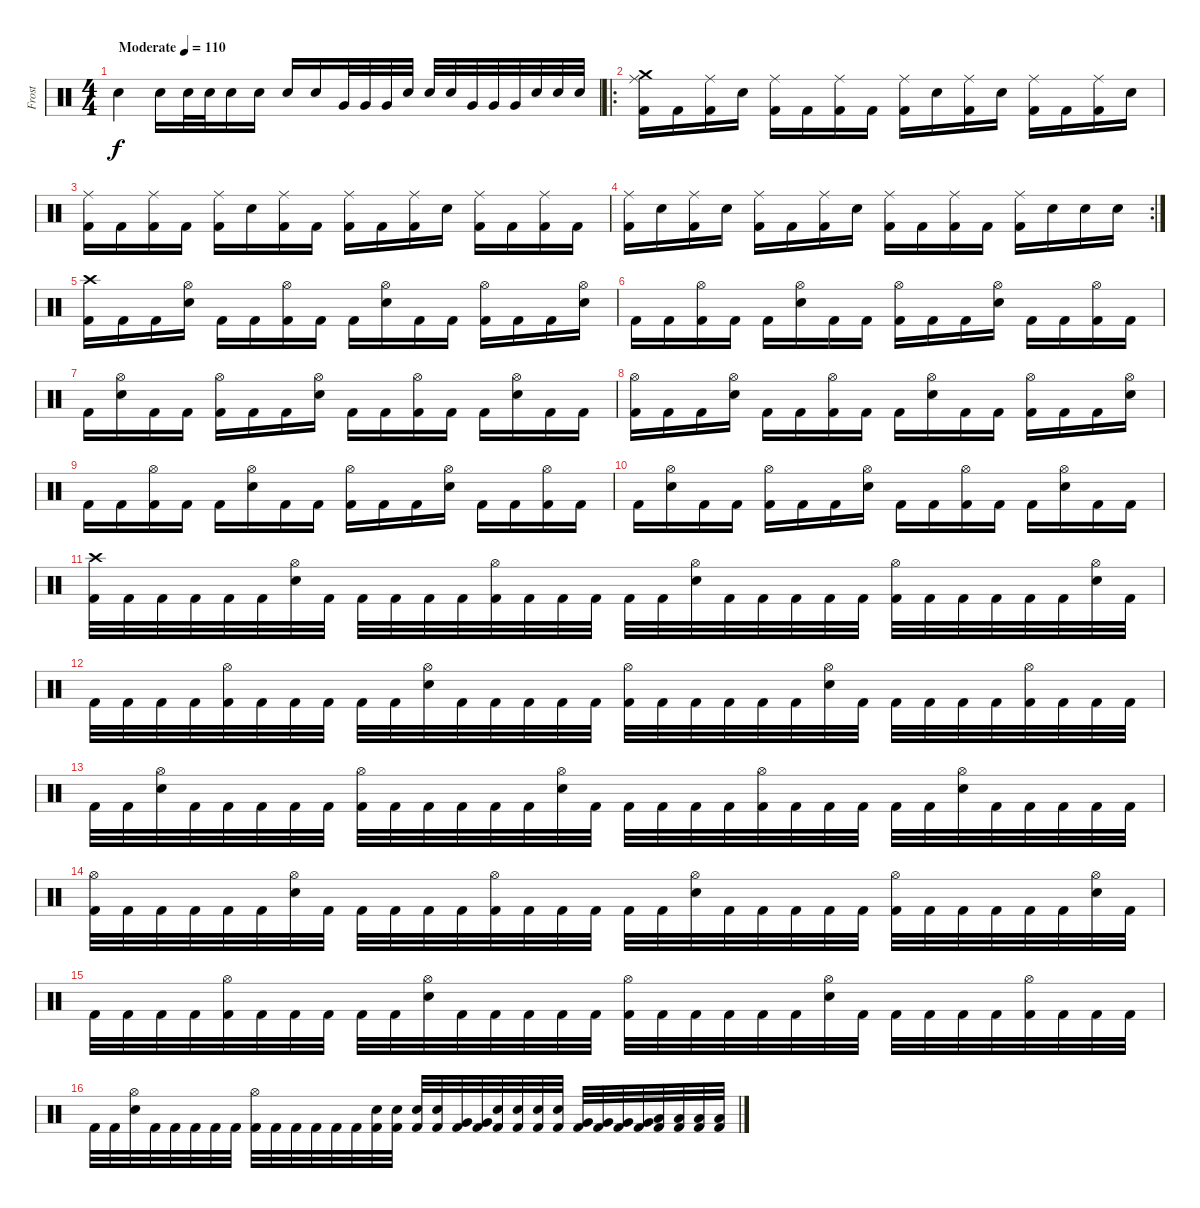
\track ("Frost" "Frost") {instrument percussion}
\staff {score}
\articulation defaults
\ts (4 4)
\tempo (110 "Moderate")
\clef neutral
\ks c "Snare (hit)".4{dy f} "Snare (hit) 2".16 "Snare (hit) 2".32 "Snare (hit) 2".32 "Snare (hit) 2".16 "Snare (hit) 2".16 "Snare (hit) 2".16 "Snare (hit) 2".16 "Very Low Tom (hit)".32 "Very Low Tom (hit)".32 "Very Low Tom (hit)".32 "Snare (hit) 2".32 "Snare (hit) 2".32 "Snare (hit) 2".32 "Very Low Tom (hit)".32 "Very Low Tom (hit)".32 "Very Low Tom (hit)".32 "Snare (hit) 2".32 "Snare (hit) 2".32 "Snare (hit) 2".32
|
\ro
("Crash medium (hit)" "Ride (middle)" "Kick (hit) 2").16 "Kick (hit) 2".16 ("Ride (middle)" "Kick (hit) 2").16 "Snare (hit) 2".16 ("Ride (middle)" "Kick (hit) 2").16 "Kick (hit) 2".16 ("Ride (middle)" "Kick (hit) 2").16 "Kick (hit) 2".16 ("Ride (middle)" "Kick (hit) 2").16 "Snare (hit) 2".16 ("Ride (middle)" "Kick (hit) 2").16 "Snare (hit) 2".16 ("Ride (middle)" "Kick (hit) 2").16 "Kick (hit) 2".16 ("Ride (middle)" "Kick (hit) 2").16 "Snare (hit) 2".16 |
("Ride (middle)" "Kick (hit) 2").16 "Kick (hit) 2".16 ("Ride (middle)" "Kick (hit) 2").16 "Kick (hit) 2".16 ("Ride (middle)" "Kick (hit) 2").16 "Snare (hit) 2".16 ("Ride (middle)" "Kick (hit) 2").16 "Kick (hit) 2".16 ("Ride (middle)" "Kick (hit) 2").16 "Kick (hit) 2".16 ("Ride (middle)" "Kick (hit) 2").16 "Snare (hit) 2".16 ("Ride (middle)" "Kick (hit) 2").16 "Kick (hit) 2".16 ("Ride (middle)" "Kick (hit) 2").16 "Kick (hit) 2".16 |
\rc 2
("Ride (middle)" "Kick (hit) 2").16 "Snare (hit) 2".16 ("Ride (middle)" "Kick (hit) 2").16 "Snare (hit) 2".16 ("Ride (middle)" "Kick (hit) 2").16 "Kick (hit) 2".16 ("Ride (middle)" "Kick (hit) 2").16 "Snare (hit) 2".16 ("Ride (middle)" "Kick (hit) 2").16 "Kick (hit) 2".16 ("Ride (middle)" "Kick (hit) 2").16 "Kick (hit) 2".16 ("Ride (middle)" "Kick (hit) 2").16 "Snare (hit) 2".16 "Snare (hit) 2".16 "Snare (hit) 2".16 |
("Crash high (hit)" "Kick (hit) 2").16 "Kick (hit) 2".16 "Kick (hit) 2".16 ("Hi-Hat (open)" "Snare (hit) 2").16 "Kick (hit) 2".16 "Kick (hit) 2".16 ("Hi-Hat (open)" "Kick (hit) 2").16 "Kick (hit) 2".16 "Kick (hit) 2".16 ("Hi-Hat (open)" "Snare (hit) 2").16 "Kick (hit) 2".16 "Kick (hit) 2".16 ("Hi-Hat (open)" "Kick (hit) 2").16 "Kick (hit) 2".16 "Kick (hit) 2".16 ("Hi-Hat (open)" "Snare (hit) 2").16 |
"Kick (hit) 2".16 "Kick (hit) 2".16 ("Hi-Hat (open)" "Kick (hit) 2").16 "Kick (hit) 2".16 "Kick (hit) 2".16 ("Hi-Hat (open)" "Snare (hit) 2").16 "Kick (hit) 2".16 "Kick (hit) 2".16 ("Hi-Hat (open)" "Kick (hit) 2").16 "Kick (hit) 2".16 "Kick (hit) 2".16 ("Hi-Hat (open)" "Snare (hit) 2").16 "Kick (hit) 2".16 "Kick (hit) 2".16 ("Hi-Hat (open)" "Kick (hit) 2").16 "Kick (hit) 2".16 |
"Kick (hit) 2".16 ("Hi-Hat (open)" "Snare (hit) 2").16 "Kick (hit) 2".16 "Kick (hit) 2".16 ("Hi-Hat (open)" "Kick (hit) 2").16 "Kick (hit) 2".16 "Kick (hit) 2".16 ("Hi-Hat (open)" "Snare (hit) 2").16 "Kick (hit) 2".16 "Kick (hit) 2".16 ("Hi-Hat (open)" "Kick (hit) 2").16 "Kick (hit) 2".16 "Kick (hit) 2".16 ("Hi-Hat (open)" "Snare (hit) 2").16 "Kick (hit) 2".16 "Kick (hit) 2".16 |
("Hi-Hat (open)" "Kick (hit) 2").16 "Kick (hit) 2".16 "Kick (hit) 2".16 ("Hi-Hat (open)" "Snare (hit) 2").16 "Kick (hit) 2".16 "Kick (hit) 2".16 ("Hi-Hat (open)" "Kick (hit) 2").16 "Kick (hit) 2".16 "Kick (hit) 2".16 ("Hi-Hat (open)" "Snare (hit) 2").16 "Kick (hit) 2".16 "Kick (hit) 2".16 ("Hi-Hat (open)" "Kick (hit) 2").16 "Kick (hit) 2".16 "Kick (hit) 2".16 ("Hi-Hat (open)" "Snare (hit) 2").16 |
"Kick (hit) 2".16 "Kick (hit) 2".16 ("Hi-Hat (open)" "Kick (hit) 2").16 "Kick (hit) 2".16 "Kick (hit) 2".16 ("Hi-Hat (open)" "Snare (hit) 2").16 "Kick (hit) 2".16 "Kick (hit) 2".16 ("Hi-Hat (open)" "Kick (hit) 2").16 "Kick (hit) 2".16 "Kick (hit) 2".16 ("Hi-Hat (open)" "Snare (hit) 2").16 "Kick (hit) 2".16 "Kick (hit) 2".16 ("Hi-Hat (open)" "Kick (hit) 2").16 "Kick (hit) 2".16 |
"Kick (hit) 2".16 ("Hi-Hat (open)" "Snare (hit) 2").16 "Kick (hit) 2".16 "Kick (hit) 2".16 ("Hi-Hat (open)" "Kick (hit) 2").16 "Kick (hit) 2".16 "Kick (hit) 2".16 ("Hi-Hat (open)" "Snare (hit) 2").16 "Kick (hit) 2".16 "Kick (hit) 2".16 ("Hi-Hat (open)" "Kick (hit) 2").16 "Kick (hit) 2".16 "Kick (hit) 2".16 ("Hi-Hat (open)" "Snare (hit) 2").16 "Kick (hit) 2".16 "Kick (hit) 2".16 |
("Crash high (hit)" "Kick (hit) 2").32 "Kick (hit) 2".32 "Kick (hit) 2".32 "Kick (hit) 2".32 "Kick (hit) 2".32 "Kick (hit) 2".32 ("Hi-Hat (open)" "Snare (hit) 2").32 "Kick (hit) 2".32 "Kick (hit) 2".32 "Kick (hit) 2".32 "Kick (hit) 2".32 "Kick (hit) 2".32 ("Hi-Hat (open)" "Kick (hit) 2").32 "Kick (hit) 2".32 "Kick (hit) 2".32 "Kick (hit) 2".32 "Kick (hit) 2".32 "Kick (hit) 2".32 ("Hi-Hat (open)" "Snare (hit) 2").32 "Kick (hit) 2".32 "Kick (hit) 2".32 "Kick (hit) 2".32 "Kick (hit) 2".32 "Kick (hit) 2".32 ("Hi-Hat (open)" "Kick (hit) 2").32 "Kick (hit) 2".32 "Kick (hit) 2".32 "Kick (hit) 2".32 "Kick (hit) 2".32 "Kick (hit) 2".32 ("Hi-Hat (open)" "Snare (hit) 2").32 "Kick (hit) 2".32 |
"Kick (hit) 2".32 "Kick (hit) 2".32 "Kick (hit) 2".32 "Kick (hit) 2".32 ("Hi-Hat (open)" "Kick (hit) 2").32 "Kick (hit) 2".32 "Kick (hit) 2".32 "Kick (hit) 2".32 "Kick (hit) 2".32 "Kick (hit) 2".32 ("Hi-Hat (open)" "Snare (hit) 2").32 "Kick (hit) 2".32 "Kick (hit) 2".32 "Kick (hit) 2".32 "Kick (hit) 2".32 "Kick (hit) 2".32 ("Hi-Hat (open)" "Kick (hit) 2").32 "Kick (hit) 2".32 "Kick (hit) 2".32 "Kick (hit) 2".32 "Kick (hit) 2".32 "Kick (hit) 2".32 ("Hi-Hat (open)" "Snare (hit) 2").32 "Kick (hit) 2".32 "Kick (hit) 2".32 "Kick (hit) 2".32 "Kick (hit) 2".32 "Kick (hit) 2".32 ("Hi-Hat (open)" "Kick (hit) 2").32 "Kick (hit) 2".32 "Kick (hit) 2".32 "Kick (hit) 2".32 |
"Kick (hit) 2".32 "Kick (hit) 2".32 ("Hi-Hat (open)" "Snare (hit) 2").32 "Kick (hit) 2".32 "Kick (hit) 2".32 "Kick (hit) 2".32 "Kick (hit) 2".32 "Kick (hit) 2".32 ("Hi-Hat (open)" "Kick (hit) 2").32 "Kick (hit) 2".32 "Kick (hit) 2".32 "Kick (hit) 2".32 "Kick (hit) 2".32 "Kick (hit) 2".32 ("Hi-Hat (open)" "Snare (hit) 2").32 "Kick (hit) 2".32 "Kick (hit) 2".32 "Kick (hit) 2".32 "Kick (hit) 2".32 "Kick (hit) 2".32 ("Hi-Hat (open)" "Kick (hit) 2").32 "Kick (hit) 2".32 "Kick (hit) 2".32 "Kick (hit) 2".32 "Kick (hit) 2".32 "Kick (hit) 2".32 ("Hi-Hat (open)" "Snare (hit) 2").32 "Kick (hit) 2".32 "Kick (hit) 2".32 "Kick (hit) 2".32 "Kick (hit) 2".32 "Kick (hit) 2".32 |
("Hi-Hat (open)" "Kick (hit) 2").32 "Kick (hit) 2".32 "Kick (hit) 2".32 "Kick (hit) 2".32 "Kick (hit) 2".32 "Kick (hit) 2".32 ("Hi-Hat (open)" "Snare (hit) 2").32 "Kick (hit) 2".32 "Kick (hit) 2".32 "Kick (hit) 2".32 "Kick (hit) 2".32 "Kick (hit) 2".32 ("Hi-Hat (open)" "Kick (hit) 2").32 "Kick (hit) 2".32 "Kick (hit) 2".32 "Kick (hit) 2".32 "Kick (hit) 2".32 "Kick (hit) 2".32 ("Hi-Hat (open)" "Snare (hit) 2").32 "Kick (hit) 2".32 "Kick (hit) 2".32 "Kick (hit) 2".32 "Kick (hit) 2".32 "Kick (hit) 2".32 ("Hi-Hat (open)" "Kick (hit) 2").32 "Kick (hit) 2".32 "Kick (hit) 2".32 "Kick (hit) 2".32 "Kick (hit) 2".32 "Kick (hit) 2".32 ("Hi-Hat (open)" "Snare (hit) 2").32 "Kick (hit) 2".32 |
"Kick (hit) 2".32 "Kick (hit) 2".32 "Kick (hit) 2".32 "Kick (hit) 2".32 ("Hi-Hat (open)" "Kick (hit) 2").32 "Kick (hit) 2".32 "Kick (hit) 2".32 "Kick (hit) 2".32 "Kick (hit) 2".32 "Kick (hit) 2".32 ("Hi-Hat (open)" "Snare (hit) 2").32 "Kick (hit) 2".32 "Kick (hit) 2".32 "Kick (hit) 2".32 "Kick (hit) 2".32 "Kick (hit) 2".32 ("Hi-Hat (open)" "Kick (hit) 2").32 "Kick (hit) 2".32 "Kick (hit) 2".32 "Kick (hit) 2".32 "Kick (hit) 2".32 "Kick (hit) 2".32 ("Hi-Hat (open)" "Snare (hit) 2").32 "Kick (hit) 2".32 "Kick (hit) 2".32 "Kick (hit) 2".32 "Kick (hit) 2".32 "Kick (hit) 2".32 ("Hi-Hat (open)" "Kick (hit) 2").32 "Kick (hit) 2".32 "Kick (hit) 2".32 "Kick (hit) 2".32 |
"Kick (hit) 2".32 "Kick (hit) 2".32 ("Hi-Hat (open)" "Snare (hit) 2").32 "Kick (hit) 2".32 "Kick (hit) 2".32 "Kick (hit) 2".32 "Kick (hit) 2".32 "Kick (hit) 2".32 ("Hi-Hat (open)" "Kick (hit) 2").32 "Kick (hit) 2".32 "Kick (hit) 2".32 "Kick (hit) 2".32 "Kick (hit) 2".32 "Kick (hit) 2".32 ("Snare (hit) 2" "Kick (hit) 2").32 ("Snare (hit) 2" "Kick (hit) 2").32 ("Snare (hit) 2" "Kick (hit) 2").32 ("Snare (hit) 2" "Kick (hit) 2").32 ("Very Low Tom (hit)" "Kick (hit) 2").32 ("Very Low Tom (hit)" "Kick (hit) 2").32 ("Snare (hit) 2" "Kick (hit) 2").32 ("Snare (hit) 2" "Kick (hit) 2").32 ("Snare (hit) 2" "Kick (hit) 2").32 ("Snare (hit) 2" "Kick (hit) 2").32 ("Very Low Tom (hit)" "Kick (hit) 2").32 ("Very Low Tom (hit)" "Kick (hit) 2").32 ("Very Low Tom (hit)" "Kick (hit) 2").32 ("Very Low Tom (hit)" "Kick (hit) 2").32 ("Low Floor Tom (hit)" "Kick (hit) 2").32 ("Low Floor Tom (hit)" "Kick (hit) 2").32 ("Low Floor Tom (hit)" "Kick (hit) 2").32 ("Low Floor Tom (hit)" "Kick (hit) 2").32
